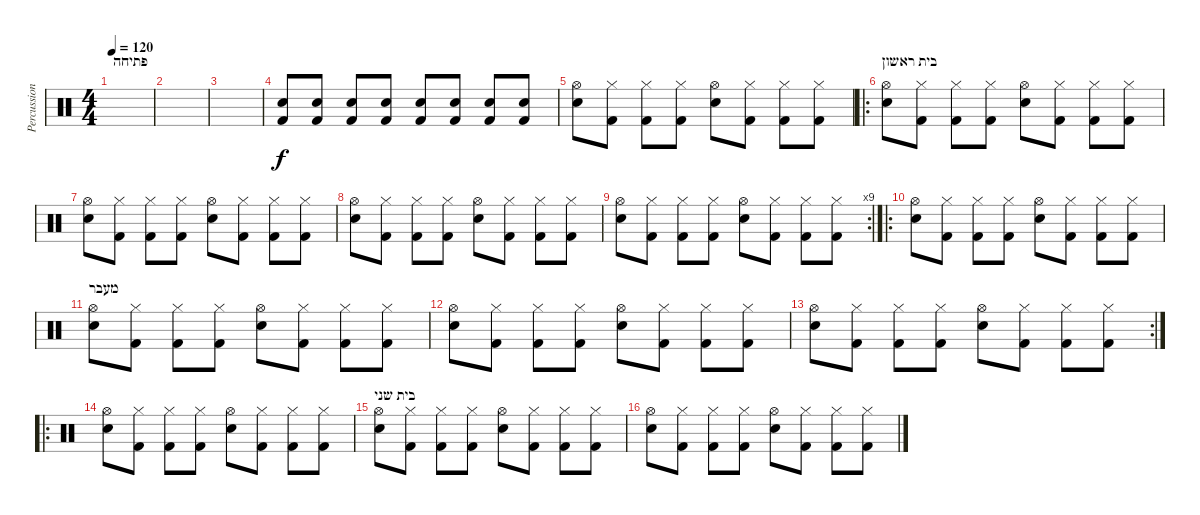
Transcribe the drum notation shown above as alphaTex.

\track ("Percussion" "Percussion") {instrument percussion}
\staff {score}
\articulation defaults
\ts (4 4)
\section ("" "פתיחה")
\tempo 120
\clef neutral
\ks c
|
|
|
("Kick (hit) 2" "Electric Snare (hit)").8 ("Kick (hit) 2" "Electric Snare (hit)").8 ("Kick (hit) 2" "Electric Snare (hit)").8 ("Kick (hit) 2" "Electric Snare (hit)").8{volume 8} ("Kick (hit) 2" "Electric Snare (hit)").8 ("Kick (hit) 2" "Electric Snare (hit)").8 ("Kick (hit) 2" "Electric Snare (hit)").8 ("Kick (hit) 2" "Electric Snare (hit)").8{volume 13} |
("Hi-Hat (open)" "Electric Snare (hit)").8 ("Hi-Hat (closed)" "Kick (hit) 2").8 ("Hi-Hat (closed)" "Kick (hit) 2").8 ("Hi-Hat (closed)" "Kick (hit) 2").8 ("Hi-Hat (open)" "Electric Snare (hit)").8 ("Hi-Hat (closed)" "Kick (hit) 2").8 ("Hi-Hat (closed)" "Kick (hit) 2").8 ("Hi-Hat (closed)" "Kick (hit) 2").8 |
\ro
\section ("" "בית ראשון")
("Hi-Hat (open)" "Electric Snare (hit)").8 ("Hi-Hat (closed)" "Kick (hit) 2").8 ("Hi-Hat (closed)" "Kick (hit) 2").8 ("Hi-Hat (closed)" "Kick (hit) 2").8 ("Hi-Hat (open)" "Electric Snare (hit)").8 ("Hi-Hat (closed)" "Kick (hit) 2").8 ("Hi-Hat (closed)" "Kick (hit) 2").8 ("Hi-Hat (closed)" "Kick (hit) 2").8 |
("Hi-Hat (open)" "Electric Snare (hit)").8 ("Hi-Hat (closed)" "Kick (hit) 2").8 ("Hi-Hat (closed)" "Kick (hit) 2").8 ("Hi-Hat (closed)" "Kick (hit) 2").8 ("Hi-Hat (open)" "Electric Snare (hit)").8 ("Hi-Hat (closed)" "Kick (hit) 2").8 ("Hi-Hat (closed)" "Kick (hit) 2").8 ("Hi-Hat (closed)" "Kick (hit) 2").8 |
("Hi-Hat (open)" "Electric Snare (hit)").8 ("Hi-Hat (closed)" "Kick (hit) 2").8 ("Hi-Hat (closed)" "Kick (hit) 2").8 ("Hi-Hat (closed)" "Kick (hit) 2").8 ("Hi-Hat (open)" "Electric Snare (hit)").8 ("Hi-Hat (closed)" "Kick (hit) 2").8 ("Hi-Hat (closed)" "Kick (hit) 2").8 ("Hi-Hat (closed)" "Kick (hit) 2").8 |
\rc 9
("Hi-Hat (open)" "Electric Snare (hit)").8 ("Hi-Hat (closed)" "Kick (hit) 2").8 ("Hi-Hat (closed)" "Kick (hit) 2").8 ("Hi-Hat (closed)" "Kick (hit) 2").8 ("Hi-Hat (open)" "Electric Snare (hit)").8 ("Hi-Hat (closed)" "Kick (hit) 2").8 ("Hi-Hat (closed)" "Kick (hit) 2").8 ("Hi-Hat (closed)" "Kick (hit) 2").8 |
\ro
("Hi-Hat (open)" "Electric Snare (hit)").8 ("Hi-Hat (closed)" "Kick (hit) 2").8 ("Hi-Hat (closed)" "Kick (hit) 2").8 ("Hi-Hat (closed)" "Kick (hit) 2").8 ("Hi-Hat (open)" "Electric Snare (hit)").8 ("Hi-Hat (closed)" "Kick (hit) 2").8 ("Hi-Hat (closed)" "Kick (hit) 2").8 ("Hi-Hat (closed)" "Kick (hit) 2").8 |
\section ("" "מעבר")
("Hi-Hat (open)" "Electric Snare (hit)").8 ("Hi-Hat (closed)" "Kick (hit) 2").8 ("Hi-Hat (closed)" "Kick (hit) 2").8 ("Hi-Hat (closed)" "Kick (hit) 2").8 ("Hi-Hat (open)" "Electric Snare (hit)").8 ("Hi-Hat (closed)" "Kick (hit) 2").8 ("Hi-Hat (closed)" "Kick (hit) 2").8 ("Hi-Hat (closed)" "Kick (hit) 2").8 |
("Hi-Hat (open)" "Electric Snare (hit)").8 ("Hi-Hat (closed)" "Kick (hit) 2").8 ("Hi-Hat (closed)" "Kick (hit) 2").8 ("Hi-Hat (closed)" "Kick (hit) 2").8 ("Hi-Hat (open)" "Electric Snare (hit)").8 ("Hi-Hat (closed)" "Kick (hit) 2").8 ("Hi-Hat (closed)" "Kick (hit) 2").8 ("Hi-Hat (closed)" "Kick (hit) 2").8 |
\rc 2
("Hi-Hat (open)" "Electric Snare (hit)").8 ("Hi-Hat (closed)" "Kick (hit) 2").8 ("Hi-Hat (closed)" "Kick (hit) 2").8 ("Hi-Hat (closed)" "Kick (hit) 2").8 ("Hi-Hat (open)" "Electric Snare (hit)").8 ("Hi-Hat (closed)" "Kick (hit) 2").8 ("Hi-Hat (closed)" "Kick (hit) 2").8 ("Hi-Hat (closed)" "Kick (hit) 2").8 |
\ro
("Hi-Hat (open)" "Electric Snare (hit)").8 ("Hi-Hat (closed)" "Kick (hit) 2").8 ("Hi-Hat (closed)" "Kick (hit) 2").8 ("Hi-Hat (closed)" "Kick (hit) 2").8 ("Hi-Hat (open)" "Electric Snare (hit)").8 ("Hi-Hat (closed)" "Kick (hit) 2").8 ("Hi-Hat (closed)" "Kick (hit) 2").8 ("Hi-Hat (closed)" "Kick (hit) 2").8 |
\section ("" "בית שני")
("Hi-Hat (open)" "Electric Snare (hit)").8 ("Hi-Hat (closed)" "Kick (hit) 2").8 ("Hi-Hat (closed)" "Kick (hit) 2").8 ("Hi-Hat (closed)" "Kick (hit) 2").8 ("Hi-Hat (open)" "Electric Snare (hit)").8 ("Hi-Hat (closed)" "Kick (hit) 2").8 ("Hi-Hat (closed)" "Kick (hit) 2").8 ("Hi-Hat (closed)" "Kick (hit) 2").8 |
("Hi-Hat (open)" "Electric Snare (hit)").8 ("Hi-Hat (closed)" "Kick (hit) 2").8 ("Hi-Hat (closed)" "Kick (hit) 2").8 ("Hi-Hat (closed)" "Kick (hit) 2").8 ("Hi-Hat (open)" "Electric Snare (hit)").8 ("Hi-Hat (closed)" "Kick (hit) 2").8 ("Hi-Hat (closed)" "Kick (hit) 2").8 ("Hi-Hat (closed)" "Kick (hit) 2").8
